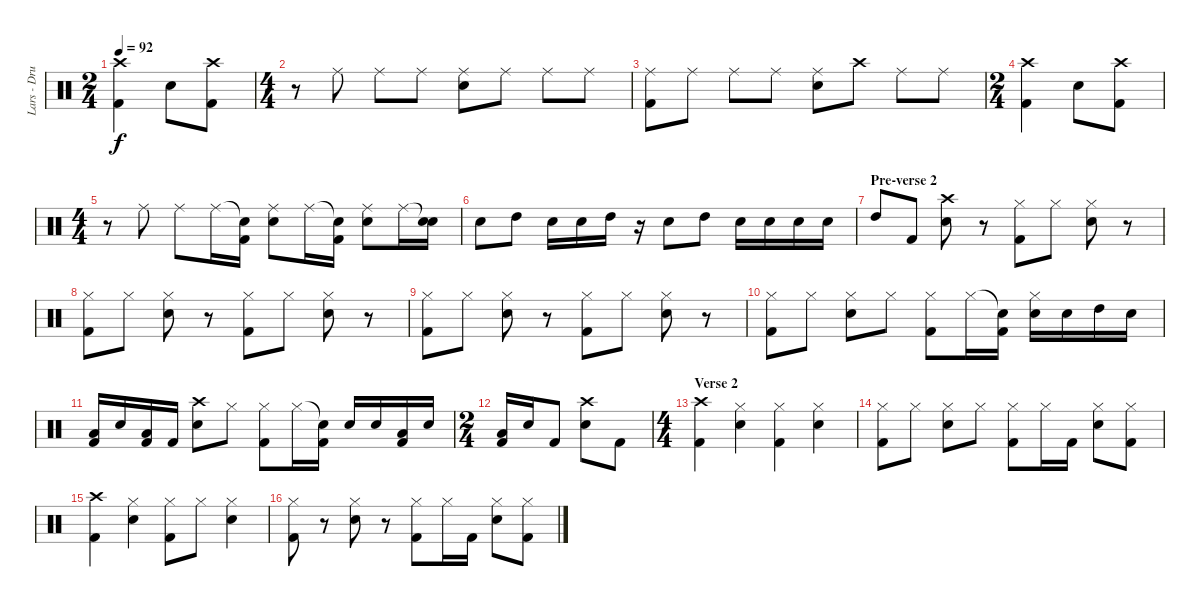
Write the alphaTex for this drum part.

\track ("Lars - Drums" "Lars - Dru") {instrument percussion}
\staff {score}
\articulation defaults
\ts (2 4)
\tempo 92
\clef neutral
\ks c
("Crash high (hit)" "Kick (hit) 2").4{dy f} "Electric Snare (hit)".8 ("Crash high (hit)" "Kick (hit) 2").8 |
\ts (4 4)
r.8 "Ride (middle)".8 "Ride (middle)".8 "Ride (middle)".8 ("Ride (middle)" "Electric Snare (hit)").8 "Ride (middle)".8 "Ride (middle)".8 "Ride (middle)".8 |
("Ride (middle)" "Kick (hit) 2").8 "Ride (middle)".8 "Ride (middle)".8 "Ride (middle)".8 ("Ride (middle)" "Electric Snare (hit)").8 "Crash high (hit)".8 "Ride (middle)".8 "Ride (middle)".8 |
\ts (2 4)
("Crash high (hit)" "Kick (hit) 2").4 "Electric Snare (hit)".8 ("Crash high (hit)" "Kick (hit) 2").8 |
\ts (4 4)
r.8 "Ride (middle)".8 "Ride (middle)".8 "Ride (middle)".16 ("Snare (hit)"{t} "Kick (hit) 2").16 ("Ride (middle)" "Electric Snare (hit)").8 "Ride (middle)".16 ("Snare (hit)"{t} "Kick (hit) 2").16 ("Ride (middle)" "Electric Snare (hit)").8 "Ride (middle)".16 ("Snare (hit)"{t} "Electric Snare (hit)").16 |
"Electric Snare (hit)".8 "High Tom (hit)".8 "Electric Snare (hit)".16 "Electric Snare (hit)".16 "High Tom (hit)".16 r.16 "Electric Snare (hit)".8 "High Tom (hit)".8 "Electric Snare (hit)".16 "Electric Snare (hit)".16 "Electric Snare (hit)".16 "Electric Snare (hit)".16 |
\section ("" "Pre-verse 2")
"High Tom (hit)".8 "Kick (hit) 2".8 ("Crash high (hit)" "Electric Snare (hit)").8 r.8 ("Hi-Hat (closed)" "Kick (hit) 2").8 "Hi-Hat (closed)".8 ("Hi-Hat (closed)" "Electric Snare (hit)").8 r.8 |
("Hi-Hat (closed)" "Kick (hit) 2").8 "Hi-Hat (closed)".8 ("Hi-Hat (closed)" "Electric Snare (hit)").8 r.8 ("Hi-Hat (closed)" "Kick (hit) 2").8 "Hi-Hat (closed)".8 ("Hi-Hat (closed)" "Electric Snare (hit)").8 r.8 |
("Hi-Hat (closed)" "Kick (hit) 2").8 "Hi-Hat (closed)".8 ("Hi-Hat (closed)" "Electric Snare (hit)").8 r.8 ("Hi-Hat (closed)" "Kick (hit) 2").8 "Hi-Hat (closed)".8 ("Hi-Hat (closed)" "Electric Snare (hit)").8 r.8 |
("Hi-Hat (closed)" "Kick (hit) 2").8 "Hi-Hat (closed)".8 ("Hi-Hat (closed)" "Electric Snare (hit)").8 "Hi-Hat (closed)".8 ("Hi-Hat (closed)" "Kick (hit) 2").8 "Hi-Hat (closed)".16 ("Snare (hit)"{t} "Kick (hit) 2").16 ("Hi-Hat (closed)" "Electric Snare (hit)").16 "Electric Snare (hit)".16 "High Tom (hit)".16 "Electric Snare (hit)".16 |
("Low Tom (hit)" "Kick (hit) 2").16 "Electric Snare (hit)".16 ("Low Tom (hit)" "Kick (hit) 2").16 "Kick (hit) 2".16 ("Crash high (hit)" "Electric Snare (hit)").8 "Hi-Hat (closed)".8 ("Hi-Hat (closed)" "Kick (hit) 2").8 "Hi-Hat (closed)".16 ("Snare (hit)"{t} "Kick (hit) 2").16 "Electric Snare (hit)".16 "Electric Snare (hit)".16 ("Low Tom (hit)" "Kick (hit) 2").16 "Electric Snare (hit)".16 |
\ts (2 4)
("Low Tom (hit)" "Kick (hit) 2").16 "Electric Snare (hit)".16 "Kick (hit) 2".8 ("Crash high (hit)" "Electric Snare (hit)").8 "Kick (hit) 2".8 |
\ts (4 4)
\section ("" "Verse 2")
("Crash high (hit)" "Kick (hit) 2").4 ("Hi-Hat (closed)" "Electric Snare (hit)").4 ("Hi-Hat (closed)" "Kick (hit) 2").4 ("Hi-Hat (closed)" "Electric Snare (hit)").4 |
("Hi-Hat (closed)" "Kick (hit) 2").8 "Hi-Hat (closed)".8 ("Hi-Hat (closed)" "Electric Snare (hit)").8 "Hi-Hat (closed)".8 ("Hi-Hat (closed)" "Kick (hit) 2").8 "Hi-Hat (closed)".16 "Kick (hit) 2".16 ("Hi-Hat (closed)" "Electric Snare (hit)").8 ("Hi-Hat (closed)" "Kick (hit) 2").8 |
("Crash high (hit)" "Kick (hit) 2").4 ("Hi-Hat (closed)" "Electric Snare (hit)").4 ("Hi-Hat (closed)" "Kick (hit) 2").8 "Hi-Hat (closed)".8 ("Hi-Hat (closed)" "Electric Snare (hit)").4 |
("Hi-Hat (closed)" "Kick (hit) 2").8 r.8 ("Hi-Hat (closed)" "Electric Snare (hit)").8 r.8 ("Hi-Hat (closed)" "Kick (hit) 2").8 "Hi-Hat (closed)".16 "Kick (hit) 2".16 ("Hi-Hat (closed)" "Electric Snare (hit)").8 ("Hi-Hat (closed)" "Kick (hit) 2").8
